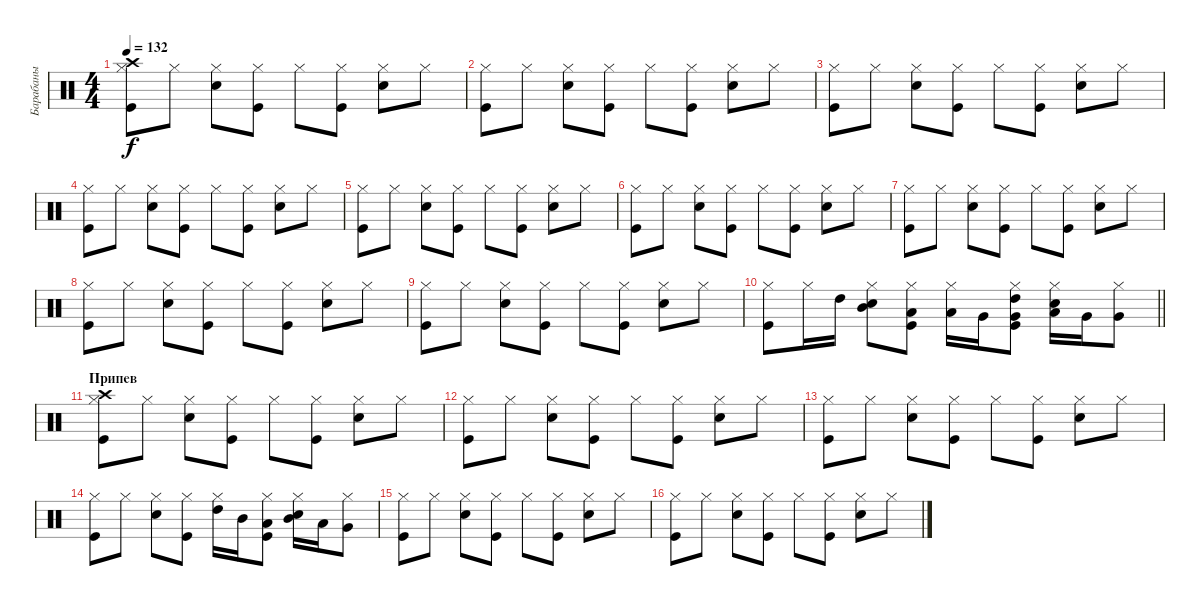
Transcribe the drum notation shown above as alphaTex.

\track ("Барабаны" "Барабаны") {instrument percussion}
\staff {score}
\articulation defaults
\ts (4 4)
\tempo 132
\clef neutral
\ks c
("Kick (hit)" "Hi-Hat (closed)" "Crash high (hit)").8{dy f} "Hi-Hat (closed)".8 ("Snare (hit) 2" "Hi-Hat (closed)").8 ("Kick (hit)" "Hi-Hat (closed)").8 "Hi-Hat (closed)".8 ("Kick (hit)" "Hi-Hat (closed)").8 ("Snare (hit) 2" "Hi-Hat (closed)").8 "Hi-Hat (closed)".8 |
("Kick (hit)" "Hi-Hat (closed)").8 "Hi-Hat (closed)".8 ("Snare (hit) 2" "Hi-Hat (closed)").8 ("Kick (hit)" "Hi-Hat (closed)").8 "Hi-Hat (closed)".8 ("Kick (hit)" "Hi-Hat (closed)").8 ("Snare (hit) 2" "Hi-Hat (closed)").8 "Hi-Hat (closed)".8 |
("Kick (hit)" "Hi-Hat (closed)").8 "Hi-Hat (closed)".8 ("Snare (hit) 2" "Hi-Hat (closed)").8 ("Kick (hit)" "Hi-Hat (closed)").8 "Hi-Hat (closed)".8 ("Kick (hit)" "Hi-Hat (closed)").8 ("Snare (hit) 2" "Hi-Hat (closed)").8 "Hi-Hat (closed)".8 |
("Kick (hit)" "Hi-Hat (closed)").8 "Hi-Hat (closed)".8 ("Snare (hit) 2" "Hi-Hat (closed)").8 ("Kick (hit)" "Hi-Hat (closed)").8 "Hi-Hat (closed)".8 ("Kick (hit)" "Hi-Hat (closed)").8 ("Snare (hit) 2" "Hi-Hat (closed)").8 "Hi-Hat (closed)".8 |
("Kick (hit)" "Hi-Hat (closed)").8 "Hi-Hat (closed)".8 ("Snare (hit) 2" "Hi-Hat (closed)").8 ("Kick (hit)" "Hi-Hat (closed)").8 "Hi-Hat (closed)".8 ("Kick (hit)" "Hi-Hat (closed)").8 ("Snare (hit) 2" "Hi-Hat (closed)").8 "Hi-Hat (closed)".8 |
("Kick (hit)" "Hi-Hat (closed)").8 "Hi-Hat (closed)".8 ("Snare (hit) 2" "Hi-Hat (closed)").8 ("Kick (hit)" "Hi-Hat (closed)").8 "Hi-Hat (closed)".8 ("Kick (hit)" "Hi-Hat (closed)").8 ("Snare (hit) 2" "Hi-Hat (closed)").8 "Hi-Hat (closed)".8 |
("Kick (hit)" "Hi-Hat (closed)").8 "Hi-Hat (closed)".8 ("Snare (hit) 2" "Hi-Hat (closed)").8 ("Kick (hit)" "Hi-Hat (closed)").8 "Hi-Hat (closed)".8 ("Kick (hit)" "Hi-Hat (closed)").8 ("Snare (hit) 2" "Hi-Hat (closed)").8 "Hi-Hat (closed)".8 |
("Kick (hit)" "Hi-Hat (closed)").8 "Hi-Hat (closed)".8 ("Snare (hit) 2" "Hi-Hat (closed)").8 ("Kick (hit)" "Hi-Hat (closed)").8 "Hi-Hat (closed)".8 ("Kick (hit)" "Hi-Hat (closed)").8 ("Snare (hit) 2" "Hi-Hat (closed)").8 "Hi-Hat (closed)".8 |
("Kick (hit)" "Hi-Hat (closed)").8 "Hi-Hat (closed)".8 ("Snare (hit) 2" "Hi-Hat (closed)").8 ("Kick (hit)" "Hi-Hat (closed)").8 "Hi-Hat (closed)".8 ("Kick (hit)" "Hi-Hat (closed)").8 ("Snare (hit) 2" "Hi-Hat (closed)").8 "Hi-Hat (closed)".8 |
\barLineRight lightlight
("Kick (hit)" "Hi-Hat (closed)").8 "Hi-Hat (closed)".16 "High Tom (hit)".16 ("Snare (hit) 2" "Hi-Hat (closed)" "Mid Tom (hit)").8 ("Kick (hit)" "Hi-Hat (closed)" "Low Tom (hit)").8 ("Hi-Hat (closed)" "Low Tom (hit)").16 "Very Low Tom (hit)".16 ("Kick (hit)" "Hi-Hat (closed)" "Very Low Tom (hit)" "High Tom (hit)").8 ("Snare (hit) 2" "Hi-Hat (closed)" "Low Tom (hit)").16 "Very Low Tom (hit)".16 ("Hi-Hat (closed)" "Very Low Tom (hit)").8 |
\section ("" "Припев")
("Kick (hit)" "Hi-Hat (closed)" "Crash high (hit)").8 "Hi-Hat (closed)".8 ("Snare (hit) 2" "Hi-Hat (closed)").8 ("Kick (hit)" "Hi-Hat (closed)").8 "Hi-Hat (closed)".8 ("Kick (hit)" "Hi-Hat (closed)").8 ("Snare (hit) 2" "Hi-Hat (closed)").8 "Hi-Hat (closed)".8 |
("Kick (hit)" "Hi-Hat (closed)").8 "Hi-Hat (closed)".8 ("Snare (hit) 2" "Hi-Hat (closed)").8 ("Kick (hit)" "Hi-Hat (closed)").8 "Hi-Hat (closed)".8 ("Kick (hit)" "Hi-Hat (closed)").8 ("Snare (hit) 2" "Hi-Hat (closed)").8 "Hi-Hat (closed)".8 |
("Kick (hit)" "Hi-Hat (closed)").8 "Hi-Hat (closed)".8 ("Snare (hit) 2" "Hi-Hat (closed)").8 ("Kick (hit)" "Hi-Hat (closed)").8 "Hi-Hat (closed)".8 ("Kick (hit)" "Hi-Hat (closed)").8 ("Snare (hit) 2" "Hi-Hat (closed)").8 "Hi-Hat (closed)".8 |
("Kick (hit)" "Hi-Hat (closed)").8 "Hi-Hat (closed)".8 ("Snare (hit) 2" "Hi-Hat (closed)").8 ("Kick (hit)" "Hi-Hat (closed)").8 ("Hi-Hat (closed)" "High Tom (hit)").16 "Mid Tom (hit)".16 ("Kick (hit)" "Hi-Hat (closed)" "Low Tom (hit)").8 ("Snare (hit) 2" "Hi-Hat (closed)" "Mid Tom (hit)").16 "Low Tom (hit)".16 ("Hi-Hat (closed)" "Very Low Tom (hit)").8 |
("Kick (hit)" "Hi-Hat (closed)").8 "Hi-Hat (closed)".8 ("Snare (hit) 2" "Hi-Hat (closed)").8 ("Kick (hit)" "Hi-Hat (closed)").8 "Hi-Hat (closed)".8 ("Kick (hit)" "Hi-Hat (closed)").8 ("Snare (hit) 2" "Hi-Hat (closed)").8 "Hi-Hat (closed)".8 |
("Kick (hit)" "Hi-Hat (closed)").8 "Hi-Hat (closed)".8 ("Snare (hit) 2" "Hi-Hat (closed)").8 ("Kick (hit)" "Hi-Hat (closed)").8 "Hi-Hat (closed)".8 ("Kick (hit)" "Hi-Hat (closed)").8 ("Snare (hit) 2" "Hi-Hat (closed)").8 "Hi-Hat (closed)".8
